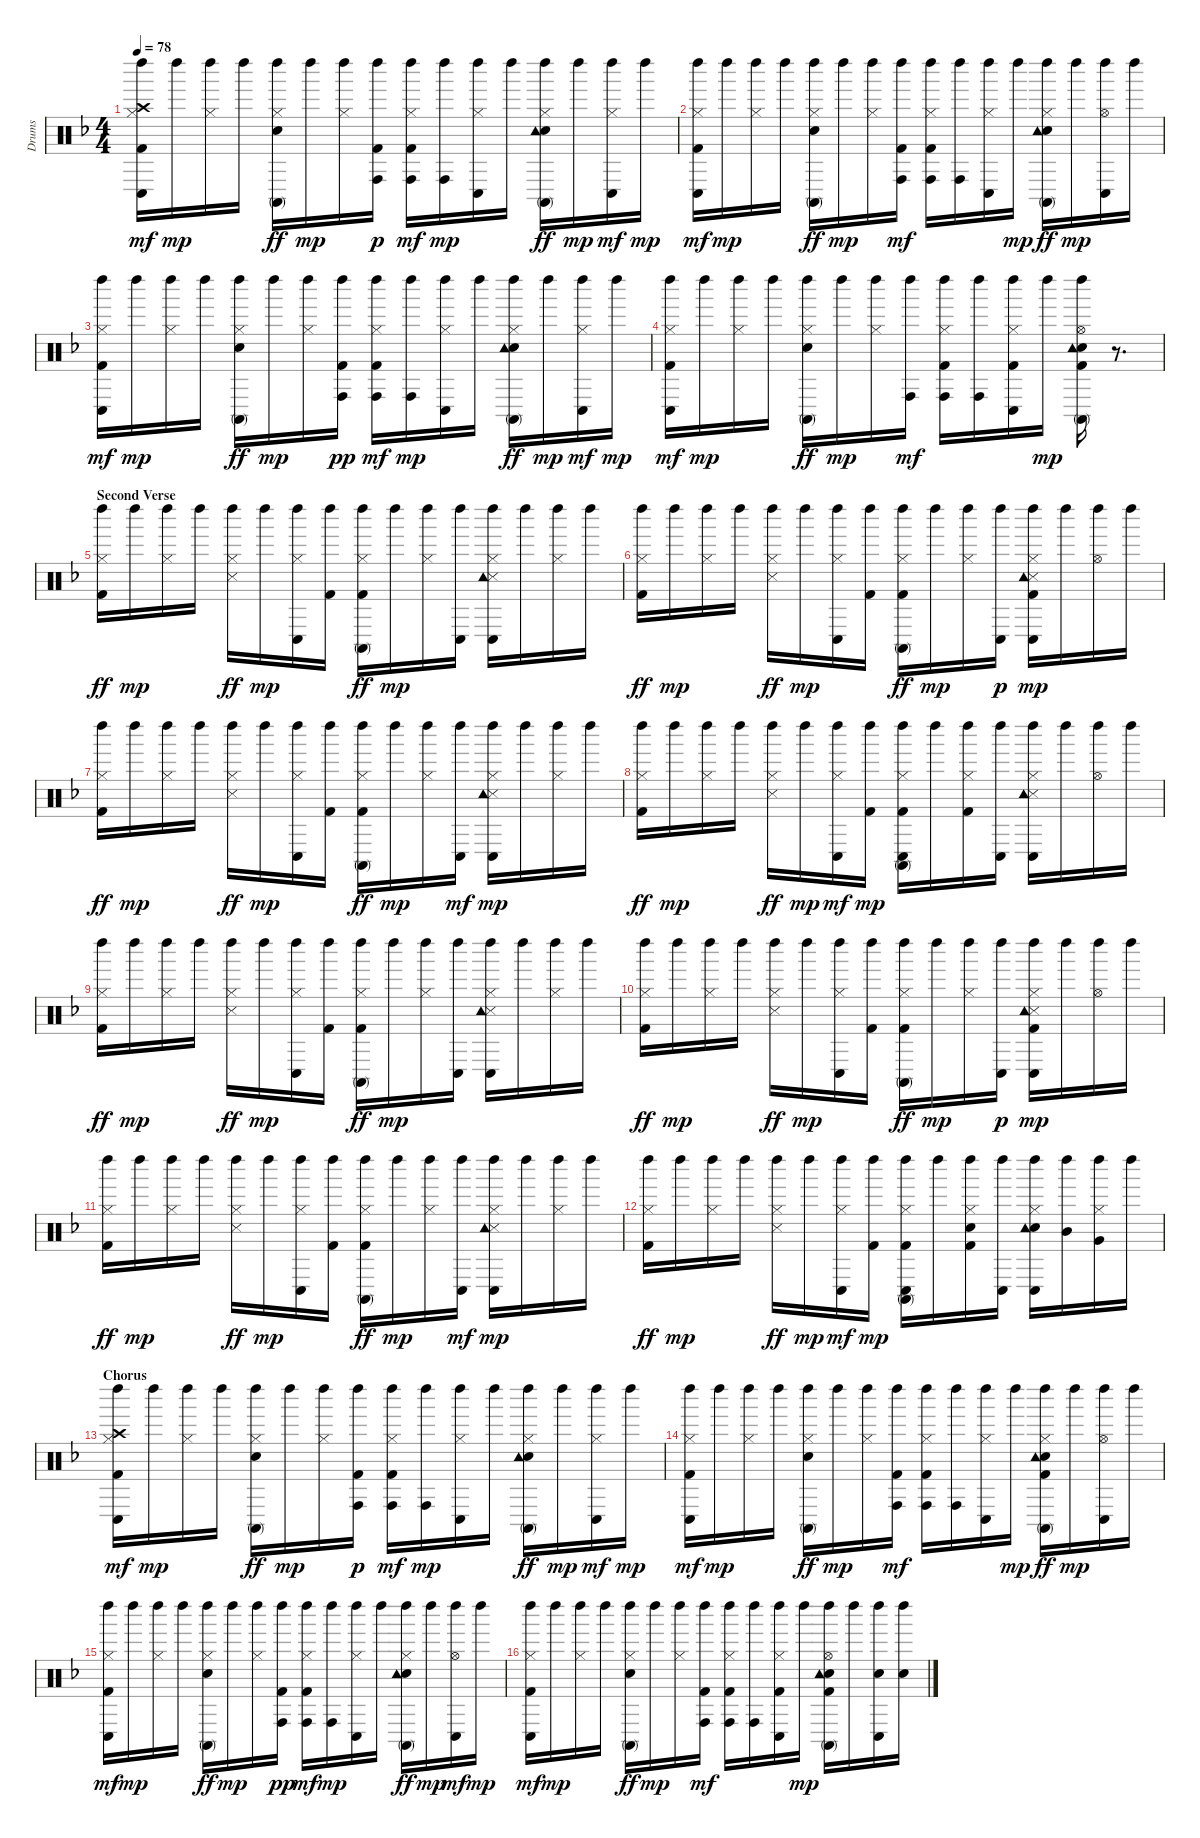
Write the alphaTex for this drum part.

\track ("Drums" "Drums") {instrument percussion}
\staff {score}
\articulation defaults
\ts (4 4)
\tempo 78
\clef neutral
\ks f
("Kick (hit) 2" "Hi-Hat (closed)" "Left Maraca (hit)" "Crash high (hit)" "Conga low (hit)").16{dy mf} "Left Maraca (hit)".16{dy mp} ("Hi-Hat (closed)" "Left Maraca (hit)").16 "Left Maraca (hit)".16 ("Snare (hit) 2" "Hi-Hat (closed)" "Left Maraca (hit)" "Conga high (mute)").16{dy ff} "Left Maraca (hit)".16{dy mp} ("Hi-Hat (closed)" "Left Maraca (hit)").16 ("Kick (hit) 2" "Left Maraca (hit)" "Conga high (hit)").16{dy p} ("Kick (hit) 2" "Hi-Hat (closed)" "Left Maraca (hit)" "Conga high (hit)").16{dy mf} ("Left Maraca (hit)" "Conga high (hit)").16{dy mp} ("Hi-Hat (closed)" "Left Maraca (hit)" "Conga low (hit)").16 "Left Maraca (hit)".16 ("Snare (hit) 2" "Hi-Hat (closed)" "Left Maraca (hit)" "Conga high (mute)" "Tambourine (hit)").16{dy ff} "Left Maraca (hit)".16{dy mp} ("Hi-Hat (closed)" "Left Maraca (hit)" "Conga low (hit)").16{dy mf} "Left Maraca (hit)".16{dy mp} |
("Kick (hit) 2" "Hi-Hat (closed)" "Left Maraca (hit)" "Conga low (hit)").16{dy mf} "Left Maraca (hit)".16{dy mp} ("Hi-Hat (closed)" "Left Maraca (hit)").16 "Left Maraca (hit)".16 ("Snare (hit) 2" "Hi-Hat (closed)" "Left Maraca (hit)" "Conga high (mute)").16{dy ff} "Left Maraca (hit)".16{dy mp} ("Hi-Hat (closed)" "Left Maraca (hit)").16 ("Kick (hit) 2" "Left Maraca (hit)" "Conga high (hit)").16{dy mf} ("Kick (hit) 2" "Hi-Hat (closed)" "Left Maraca (hit)" "Conga high (hit)").16 ("Left Maraca (hit)" "Conga high (hit)").16 ("Hi-Hat (closed)" "Left Maraca (hit)" "Conga low (hit)").16 "Left Maraca (hit)".16{dy mp} ("Snare (hit) 2" "Hi-Hat (closed)" "Left Maraca (hit)" "Conga high (mute)" "Tambourine (hit)").16{dy ff} "Left Maraca (hit)".16{dy mp} ("Hi-Hat (open)" "Left Maraca (hit)" "Conga low (hit)").16 "Left Maraca (hit)".16 |
("Kick (hit) 2" "Hi-Hat (closed)" "Left Maraca (hit)" "Conga low (hit)").16{dy mf} "Left Maraca (hit)".16{dy mp} ("Hi-Hat (closed)" "Left Maraca (hit)").16 "Left Maraca (hit)".16 ("Snare (hit) 2" "Hi-Hat (closed)" "Left Maraca (hit)" "Conga high (mute)").16{dy ff} "Left Maraca (hit)".16{dy mp} ("Hi-Hat (closed)" "Left Maraca (hit)").16 ("Kick (hit) 2" "Left Maraca (hit)" "Conga high (hit)").16{dy pp} ("Kick (hit) 2" "Hi-Hat (closed)" "Left Maraca (hit)" "Conga high (hit)").16{dy mf} ("Left Maraca (hit)" "Conga high (hit)").16{dy mp} ("Hi-Hat (closed)" "Left Maraca (hit)" "Conga low (hit)").16 "Left Maraca (hit)".16 ("Snare (hit) 2" "Hi-Hat (closed)" "Left Maraca (hit)" "Conga high (mute)" "Tambourine (hit)").16{dy ff} "Left Maraca (hit)".16{dy mp} ("Hi-Hat (closed)" "Left Maraca (hit)" "Conga low (hit)").16{dy mf} "Left Maraca (hit)".16{dy mp} |
("Kick (hit) 2" "Hi-Hat (closed)" "Left Maraca (hit)" "Conga low (hit)").16{dy mf} "Left Maraca (hit)".16{dy mp} ("Hi-Hat (closed)" "Left Maraca (hit)").16 "Left Maraca (hit)".16 ("Snare (hit) 2" "Hi-Hat (closed)" "Left Maraca (hit)" "Conga high (mute)").16{dy ff} "Left Maraca (hit)".16{dy mp} ("Hi-Hat (closed)" "Left Maraca (hit)").16 ("Left Maraca (hit)" "Conga high (hit)").16{dy mf} ("Kick (hit) 2" "Hi-Hat (closed)" "Left Maraca (hit)" "Conga high (hit)").16 ("Left Maraca (hit)" "Conga high (hit)").16 ("Kick (hit) 2" "Hi-Hat (closed)" "Left Maraca (hit)" "Conga low (hit)").16 "Left Maraca (hit)".16{dy mp} ("Kick (hit) 2" "Snare (hit) 2" "Hi-Hat (open)" "Conga high (mute)" "Left Maraca (hit)" "Tambourine (hit)").16 r.8{d} |
\section ("" "Second Verse")
("Kick (hit) 2" "Hi-Hat (closed)" "Left Maraca (hit)").16{dy ff} "Left Maraca (hit)".16{dy mp} ("Hi-Hat (closed)" "Left Maraca (hit)").16 "Left Maraca (hit)".16 ("Hi-Hat (closed)" "Left Maraca (hit)" "Snare (side stick) 3").16{dy ff} "Left Maraca (hit)".16{dy mp} ("Hi-Hat (closed)" "Left Maraca (hit)" "Conga low (hit)").16 ("Kick (hit) 2" "Left Maraca (hit)").16 ("Kick (hit) 2" "Hi-Hat (closed)" "Left Maraca (hit)" "Conga high (mute)").16{dy ff} "Left Maraca (hit)".16{dy mp} ("Hi-Hat (closed)" "Left Maraca (hit)").16 ("Left Maraca (hit)" "Conga low (hit)").16 ("Hi-Hat (closed)" "Left Maraca (hit)" "Snare (side stick) 3" "Tambourine (hit)" "Conga low (hit)").16 "Left Maraca (hit)".16 ("Hi-Hat (closed)" "Left Maraca (hit)").16 "Left Maraca (hit)".16 |
("Kick (hit) 2" "Hi-Hat (closed)" "Left Maraca (hit)").16{dy ff} "Left Maraca (hit)".16{dy mp} ("Hi-Hat (closed)" "Left Maraca (hit)").16 "Left Maraca (hit)".16 ("Hi-Hat (closed)" "Left Maraca (hit)" "Snare (side stick) 3").16{dy ff} "Left Maraca (hit)".16{dy mp} ("Hi-Hat (closed)" "Left Maraca (hit)" "Conga low (hit)").16 ("Kick (hit) 2" "Left Maraca (hit)").16 ("Kick (hit) 2" "Hi-Hat (closed)" "Left Maraca (hit)" "Conga high (mute)").16{dy ff} "Left Maraca (hit)".16{dy mp} ("Hi-Hat (closed)" "Left Maraca (hit)").16 ("Left Maraca (hit)" "Conga low (hit)").16{dy p} ("Kick (hit) 2" "Hi-Hat (closed)" "Left Maraca (hit)" "Snare (side stick) 3" "Tambourine (hit)" "Conga low (hit)").16{dy mp} "Left Maraca (hit)".16 ("Hi-Hat (open)" "Left Maraca (hit)").16 "Left Maraca (hit)".16 |
("Kick (hit) 2" "Hi-Hat (closed)" "Left Maraca (hit)").16{dy ff} "Left Maraca (hit)".16{dy mp} ("Hi-Hat (closed)" "Left Maraca (hit)").16 "Left Maraca (hit)".16 ("Hi-Hat (closed)" "Left Maraca (hit)" "Snare (side stick) 3").16{dy ff} "Left Maraca (hit)".16{dy mp} ("Hi-Hat (closed)" "Left Maraca (hit)" "Conga low (hit)").16 ("Kick (hit) 2" "Left Maraca (hit)").16 ("Kick (hit) 2" "Hi-Hat (closed)" "Left Maraca (hit)" "Conga high (mute)").16{dy ff} "Left Maraca (hit)".16{dy mp} ("Hi-Hat (closed)" "Left Maraca (hit)").16 ("Left Maraca (hit)" "Conga low (hit)").16{dy mf} ("Hi-Hat (closed)" "Left Maraca (hit)" "Snare (side stick) 3" "Tambourine (hit)" "Conga low (hit)").16{dy mp} "Left Maraca (hit)".16 ("Hi-Hat (closed)" "Left Maraca (hit)").16 "Left Maraca (hit)".16 |
("Kick (hit) 2" "Hi-Hat (closed)" "Left Maraca (hit)").16{dy ff} "Left Maraca (hit)".16{dy mp} ("Hi-Hat (closed)" "Left Maraca (hit)").16 "Left Maraca (hit)".16 ("Hi-Hat (closed)" "Left Maraca (hit)" "Snare (side stick) 3").16{dy ff} "Left Maraca (hit)".16{dy mp} ("Hi-Hat (closed)" "Left Maraca (hit)" "Conga low (hit)").16{dy mf} ("Kick (hit) 2" "Left Maraca (hit)").16{dy mp} ("Kick (hit) 2" "Hi-Hat (closed)" "Left Maraca (hit)" "Conga high (mute)" "Conga low (hit)").16 "Left Maraca (hit)".16 ("Kick (hit) 2" "Hi-Hat (closed)" "Left Maraca (hit)").16 ("Left Maraca (hit)" "Conga low (hit)").16 ("Hi-Hat (closed)" "Left Maraca (hit)" "Snare (side stick) 3" "Tambourine (hit)" "Conga low (hit)").16 "Left Maraca (hit)".16 ("Hi-Hat (open)" "Left Maraca (hit)").16 "Left Maraca (hit)".16 |
("Kick (hit) 2" "Hi-Hat (closed)" "Left Maraca (hit)").16{dy ff} "Left Maraca (hit)".16{dy mp} ("Hi-Hat (closed)" "Left Maraca (hit)").16 "Left Maraca (hit)".16 ("Hi-Hat (closed)" "Left Maraca (hit)" "Snare (side stick) 3").16{dy ff} "Left Maraca (hit)".16{dy mp} ("Hi-Hat (closed)" "Left Maraca (hit)" "Conga low (hit)").16 ("Kick (hit) 2" "Left Maraca (hit)").16 ("Kick (hit) 2" "Hi-Hat (closed)" "Left Maraca (hit)" "Conga high (mute)").16{dy ff} "Left Maraca (hit)".16{dy mp} ("Hi-Hat (closed)" "Left Maraca (hit)").16 ("Left Maraca (hit)" "Conga low (hit)").16 ("Hi-Hat (closed)" "Left Maraca (hit)" "Snare (side stick) 3" "Tambourine (hit)" "Conga low (hit)").16 "Left Maraca (hit)".16 ("Hi-Hat (closed)" "Left Maraca (hit)").16 "Left Maraca (hit)".16 |
("Kick (hit) 2" "Hi-Hat (closed)" "Left Maraca (hit)").16{dy ff} "Left Maraca (hit)".16{dy mp} ("Hi-Hat (closed)" "Left Maraca (hit)").16 "Left Maraca (hit)".16 ("Hi-Hat (closed)" "Left Maraca (hit)" "Snare (side stick) 3").16{dy ff} "Left Maraca (hit)".16{dy mp} ("Hi-Hat (closed)" "Left Maraca (hit)" "Conga low (hit)").16 ("Kick (hit) 2" "Left Maraca (hit)").16 ("Kick (hit) 2" "Hi-Hat (closed)" "Left Maraca (hit)" "Conga high (mute)").16{dy ff} "Left Maraca (hit)".16{dy mp} ("Hi-Hat (closed)" "Left Maraca (hit)").16 ("Left Maraca (hit)" "Conga low (hit)").16{dy p} ("Kick (hit) 2" "Hi-Hat (closed)" "Left Maraca (hit)" "Snare (side stick) 3" "Tambourine (hit)" "Conga low (hit)").16{dy mp} "Left Maraca (hit)".16 ("Hi-Hat (open)" "Left Maraca (hit)").16 "Left Maraca (hit)".16 |
("Kick (hit) 2" "Hi-Hat (closed)" "Left Maraca (hit)").16{dy ff} "Left Maraca (hit)".16{dy mp} ("Hi-Hat (closed)" "Left Maraca (hit)").16 "Left Maraca (hit)".16 ("Hi-Hat (closed)" "Left Maraca (hit)" "Snare (side stick) 3").16{dy ff} "Left Maraca (hit)".16{dy mp} ("Hi-Hat (closed)" "Left Maraca (hit)" "Conga low (hit)").16 ("Kick (hit) 2" "Left Maraca (hit)").16 ("Kick (hit) 2" "Hi-Hat (closed)" "Left Maraca (hit)" "Conga high (mute)").16{dy ff} "Left Maraca (hit)".16{dy mp} ("Hi-Hat (closed)" "Left Maraca (hit)").16 ("Left Maraca (hit)" "Conga low (hit)").16{dy mf} ("Hi-Hat (closed)" "Left Maraca (hit)" "Snare (side stick) 3" "Tambourine (hit)" "Conga low (hit)").16{dy mp} "Left Maraca (hit)".16 ("Hi-Hat (closed)" "Left Maraca (hit)").16 "Left Maraca (hit)".16 |
("Kick (hit) 2" "Hi-Hat (closed)" "Left Maraca (hit)").16{dy ff} "Left Maraca (hit)".16{dy mp} ("Hi-Hat (closed)" "Left Maraca (hit)").16 "Left Maraca (hit)".16 ("Hi-Hat (closed)" "Left Maraca (hit)" "Snare (side stick) 3").16{dy ff} "Left Maraca (hit)".16{dy mp} ("Hi-Hat (closed)" "Left Maraca (hit)" "Conga low (hit)").16{dy mf} ("Kick (hit) 2" "Left Maraca (hit)").16{dy mp} ("Kick (hit) 2" "Hi-Hat (closed)" "Left Maraca (hit)" "Conga high (mute)" "Conga low (hit)").16 "Left Maraca (hit)".16 ("Kick (hit) 2" "Snare (hit) 2" "Hi-Hat (closed)" "Left Maraca (hit)").16 ("Left Maraca (hit)" "Conga low (hit)").16 ("Snare (hit) 2" "Hi-Hat (closed)" "Left Maraca (hit)" "Tambourine (hit)" "Conga low (hit)").16 ("Left Maraca (hit)" "Mid Tom (hit)").16 ("Hi-Hat (closed)" "Left Maraca (hit)" "Very Low Tom (hit)").16 "Left Maraca (hit)".16 |
\section ("" "Chorus")
("Kick (hit) 2" "Hi-Hat (closed)" "Left Maraca (hit)" "Crash high (hit)" "Conga low (hit)").16{dy mf} "Left Maraca (hit)".16{dy mp} ("Hi-Hat (closed)" "Left Maraca (hit)").16 "Left Maraca (hit)".16 ("Snare (hit) 2" "Hi-Hat (closed)" "Left Maraca (hit)" "Conga high (mute)").16{dy ff} "Left Maraca (hit)".16{dy mp} ("Hi-Hat (closed)" "Left Maraca (hit)").16 ("Kick (hit) 2" "Left Maraca (hit)" "Conga high (hit)").16{dy p} ("Kick (hit) 2" "Hi-Hat (closed)" "Left Maraca (hit)" "Conga high (hit)").16{dy mf} ("Left Maraca (hit)" "Conga high (hit)").16{dy mp} ("Hi-Hat (closed)" "Left Maraca (hit)" "Conga low (hit)").16 "Left Maraca (hit)".16 ("Snare (hit) 2" "Hi-Hat (closed)" "Left Maraca (hit)" "Conga high (mute)" "Tambourine (hit)").16{dy ff} "Left Maraca (hit)".16{dy mp} ("Hi-Hat (closed)" "Left Maraca (hit)" "Conga low (hit)").16{dy mf} "Left Maraca (hit)".16{dy mp} |
("Kick (hit) 2" "Hi-Hat (closed)" "Left Maraca (hit)" "Conga low (hit)").16{dy mf} "Left Maraca (hit)".16{dy mp} ("Hi-Hat (closed)" "Left Maraca (hit)").16 "Left Maraca (hit)".16 ("Snare (hit) 2" "Hi-Hat (closed)" "Left Maraca (hit)" "Conga high (mute)").16{dy ff} "Left Maraca (hit)".16{dy mp} ("Hi-Hat (closed)" "Left Maraca (hit)").16 ("Kick (hit) 2" "Left Maraca (hit)" "Conga high (hit)").16{dy mf} ("Kick (hit) 2" "Hi-Hat (closed)" "Left Maraca (hit)" "Conga high (hit)").16 ("Left Maraca (hit)" "Conga high (hit)").16 ("Hi-Hat (closed)" "Left Maraca (hit)" "Conga low (hit)").16 "Left Maraca (hit)".16{dy mp} ("Kick (hit) 2" "Snare (hit) 2" "Hi-Hat (closed)" "Left Maraca (hit)" "Conga high (mute)" "Tambourine (hit)").16{dy ff} "Left Maraca (hit)".16{dy mp} ("Hi-Hat (open)" "Left Maraca (hit)" "Conga low (hit)").16 "Left Maraca (hit)".16 |
("Kick (hit) 2" "Hi-Hat (closed)" "Left Maraca (hit)" "Conga low (hit)").16{dy mf} "Left Maraca (hit)".16{dy mp} ("Hi-Hat (closed)" "Left Maraca (hit)").16 "Left Maraca (hit)".16 ("Snare (hit) 2" "Hi-Hat (closed)" "Left Maraca (hit)" "Conga high (mute)").16{dy ff} "Left Maraca (hit)".16{dy mp} ("Hi-Hat (closed)" "Left Maraca (hit)").16 ("Kick (hit) 2" "Left Maraca (hit)" "Conga high (hit)").16{dy pp} ("Kick (hit) 2" "Hi-Hat (closed)" "Left Maraca (hit)" "Conga high (hit)").16{dy mf} ("Left Maraca (hit)" "Conga high (hit)").16{dy mp} ("Hi-Hat (closed)" "Left Maraca (hit)" "Conga low (hit)").16 "Left Maraca (hit)".16 ("Snare (hit) 2" "Hi-Hat (closed)" "Left Maraca (hit)" "Conga high (mute)" "Tambourine (hit)").16{dy ff} "Left Maraca (hit)".16{dy mp} ("Hi-Hat (open)" "Left Maraca (hit)" "Conga low (hit)").16{dy mf} "Left Maraca (hit)".16{dy mp} |
("Kick (hit) 2" "Hi-Hat (closed)" "Left Maraca (hit)" "Conga low (hit)").16{dy mf} "Left Maraca (hit)".16{dy mp} ("Hi-Hat (closed)" "Left Maraca (hit)").16 "Left Maraca (hit)".16 ("Snare (hit) 2" "Hi-Hat (closed)" "Left Maraca (hit)" "Conga high (mute)").16{dy ff} "Left Maraca (hit)".16{dy mp} ("Hi-Hat (closed)" "Left Maraca (hit)").16 ("Kick (hit) 2" "Left Maraca (hit)" "Conga high (hit)").16{dy mf} ("Kick (hit) 2" "Hi-Hat (closed)" "Left Maraca (hit)" "Conga high (hit)").16 ("Left Maraca (hit)" "Conga high (hit)").16 ("Kick (hit) 2" "Hi-Hat (closed)" "Left Maraca (hit)" "Conga low (hit)").16 "Left Maraca (hit)".16{dy mp} ("Kick (hit) 2" "Snare (hit) 2" "Hi-Hat (open)" "Left Maraca (hit)" "Conga high (mute)" "Tambourine (hit)").16 "Left Maraca (hit)".16 ("Snare (hit) 2" "Left Maraca (hit)" "Conga low (hit)").16 ("Snare (hit) 2" "Left Maraca (hit)").16
